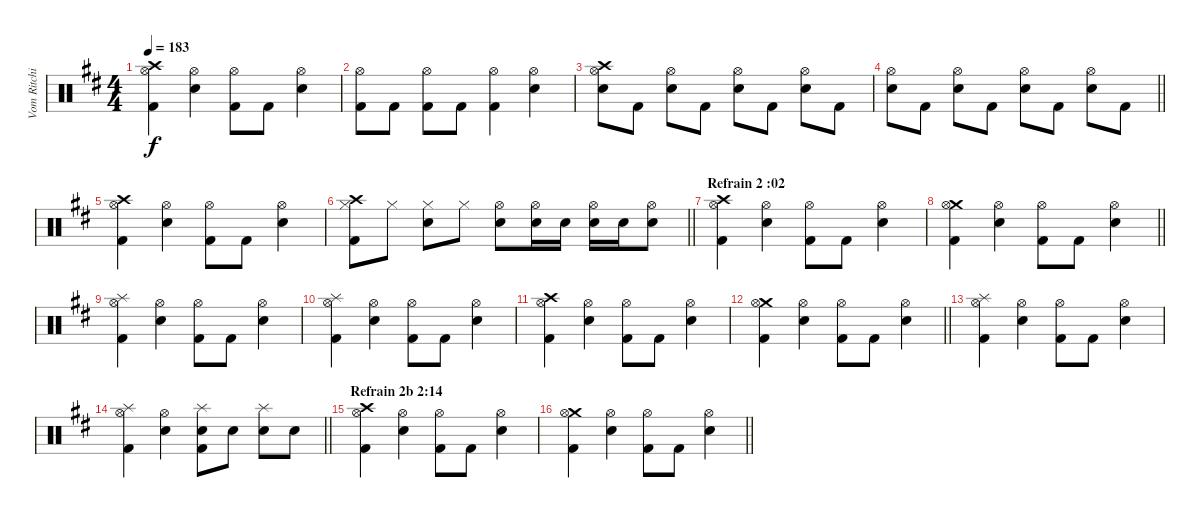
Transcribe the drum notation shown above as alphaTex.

\track ("Vom Ritchie" "Vom Ritchi") {instrument percussion}
\staff {score}
\articulation defaults
\ts (4 4)
\tempo 183
\clef neutral
\ks d
("Crash high (hit)" "Hi-Hat (open)" "Kick (hit) 2").4{dy f} ("Snare (hit) 2" "Hi-Hat (open)").4 ("Hi-Hat (open)" "Kick (hit) 2").8 "Kick (hit) 2".8 ("Snare (hit) 2" "Hi-Hat (open)").4 |
("Hi-Hat (open)" "Kick (hit) 2").8 "Kick (hit) 2".8 ("Hi-Hat (open)" "Kick (hit) 2").8 "Kick (hit) 2".8 ("Hi-Hat (open)" "Kick (hit) 2").4 ("Hi-Hat (open)" "Snare (hit) 2").4 |
("Crash high (hit)" "Snare (hit) 2" "Hi-Hat (open)").8 "Kick (hit) 2".8 ("Snare (hit) 2" "Hi-Hat (open)").8 "Kick (hit) 2".8 ("Snare (hit) 2" "Hi-Hat (open)").8 "Kick (hit) 2".8 ("Snare (hit) 2" "Hi-Hat (open)").8 "Kick (hit) 2".8 |
\barLineRight lightlight
("Snare (hit) 2" "Hi-Hat (open)").8 "Kick (hit) 2".8 ("Snare (hit) 2" "Hi-Hat (open)").8 "Kick (hit) 2".8 ("Snare (hit) 2" "Hi-Hat (open)").8 "Kick (hit) 2".8 ("Snare (hit) 2" "Hi-Hat (open)").8 "Kick (hit) 2".8 |
("Crash high (hit)" "Hi-Hat (open)" "Kick (hit) 2").4 ("Snare (hit) 2" "Hi-Hat (open)").4 ("Hi-Hat (open)" "Kick (hit) 2").8 "Kick (hit) 2".8 ("Snare (hit) 2" "Hi-Hat (open)").4 |
\barLineRight lightlight
("Crash high (hit)" "Hi-Hat (closed)" "Kick (hit) 2").8 "Hi-Hat (closed)".8 ("Snare (hit) 2" "Hi-Hat (closed)").8 "Hi-Hat (closed)".8 ("Hi-Hat (open)" "Snare (hit) 2").8 ("Hi-Hat (open)" "Snare (hit) 2").16 "Snare (hit) 2".16 ("Hi-Hat (open)" "Snare (hit) 2").16 "Snare (hit) 2".16 ("Hi-Hat (open)" "Snare (hit) 2").8 |
\section ("" "Refrain 2 :02")
("Crash high (hit)" "Hi-Hat (open)" "Kick (hit) 2").4 ("Snare (hit) 2" "Hi-Hat (open)").4 ("Hi-Hat (open)" "Kick (hit) 2").8 "Kick (hit) 2".8 ("Snare (hit) 2" "Hi-Hat (open)").4 |
\barLineRight lightlight
("Crash medium (hit)" "Hi-Hat (open)" "Kick (hit) 2").4 ("Snare (hit) 2" "Hi-Hat (open)").4 ("Hi-Hat (open)" "Kick (hit) 2").8 "Kick (hit) 2".8 ("Snare (hit) 2" "Hi-Hat (open)").4 |
("Splash (hit)" "Hi-Hat (open)" "Kick (hit) 2").4 ("Snare (hit) 2" "Hi-Hat (open)").4 ("Hi-Hat (open)" "Kick (hit) 2").8 "Kick (hit) 2".8 ("Snare (hit) 2" "Hi-Hat (open)").4 |
("Splash (hit)" "Hi-Hat (open)" "Kick (hit) 2").4 ("Snare (hit) 2" "Hi-Hat (open)").4 ("Hi-Hat (open)" "Kick (hit) 2").8 "Kick (hit) 2".8 ("Snare (hit) 2" "Hi-Hat (open)").4 |
("Crash high (hit)" "Hi-Hat (open)" "Kick (hit) 2").4 ("Snare (hit) 2" "Hi-Hat (open)").4 ("Hi-Hat (open)" "Kick (hit) 2").8 "Kick (hit) 2".8 ("Snare (hit) 2" "Hi-Hat (open)").4 |
\barLineRight lightlight
("Crash medium (hit)" "Hi-Hat (open)" "Kick (hit) 2").4 ("Snare (hit) 2" "Hi-Hat (open)").4 ("Hi-Hat (open)" "Kick (hit) 2").8 "Kick (hit) 2".8 ("Snare (hit) 2" "Hi-Hat (open)").4 |
("Splash (hit)" "Hi-Hat (open)" "Kick (hit) 2").4 ("Snare (hit) 2" "Hi-Hat (open)").4 ("Hi-Hat (open)" "Kick (hit) 2").8 "Kick (hit) 2".8 ("Snare (hit) 2" "Hi-Hat (open)").4 |
\barLineRight lightlight
("Splash (hit)" "Hi-Hat (open)" "Kick (hit) 2").4 ("Snare (hit) 2" "Hi-Hat (open)").4 ("Snare (hit) 2" "Splash (hit)" "Kick (hit) 2").8 "Snare (hit) 2".8 ("Snare (hit) 2" "Splash (hit)").8 "Snare (hit) 2".8 |
\section ("" "Refrain 2b 2:14")
("Crash high (hit)" "Hi-Hat (open)" "Kick (hit) 2").4 ("Snare (hit) 2" "Hi-Hat (open)").4 ("Hi-Hat (open)" "Kick (hit) 2").8 "Kick (hit) 2".8 ("Snare (hit) 2" "Hi-Hat (open)").4 |
\barLineRight lightlight
("Crash medium (hit)" "Hi-Hat (open)" "Kick (hit) 2").4 ("Snare (hit) 2" "Hi-Hat (open)").4 ("Hi-Hat (open)" "Kick (hit) 2").8 "Kick (hit) 2".8 ("Snare (hit) 2" "Hi-Hat (open)").4
